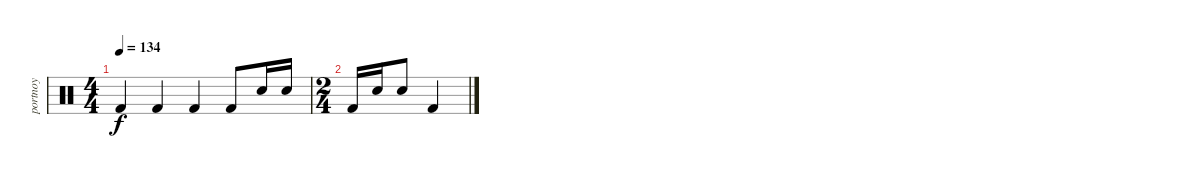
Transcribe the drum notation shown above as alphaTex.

\track ("portnoy" "portnoy") {instrument percussion}
\staff {score}
\articulation defaults
\ts (4 4)
\tempo 134
\clef neutral
\ks c "Kick (hit) 2".4{dy f} "Kick (hit) 2".4 "Kick (hit) 2".4 "Kick (hit) 2".8 "Snare (hit) 2".16 "Snare (hit) 2".16
|
\ts (2 4)
"Kick (hit) 2".16 "Snare (hit) 2".16 "Snare (hit) 2".8 "Kick (hit) 2".4
